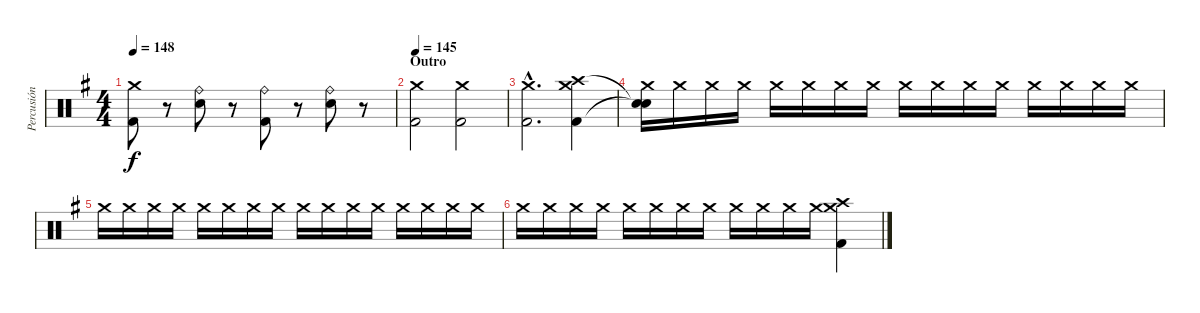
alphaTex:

\track ("Percusión" "Percusión") {instrument percussion}
\staff {score}
\articulation defaults
\ts (4 4)
\section ("" "")
\tempo 148
\clef neutral
\ks g
("Crash medium (hit)" "Kick (hit) 2").8{dy f} r.8 ("Ride (bell)" "Snare (hit) 2").8 r.8 ("Ride (bell)" "Kick (hit) 2").8 r.8 ("Ride (bell)" "Snare (hit) 2").8 r.8 |
\section ("" "Outro")
\tempo 145
("Crash medium (hit)" "Kick (hit) 2").2 ("Crash medium (hit)" "Kick (hit) 2").2 |
("Crash medium (hit)"{hac} "Kick (hit) 2"{hac}).2{d} ("Crash high (hit)" "Kick (hit) 2" "Crash medium (hit)").4 |
("Snare (hit)"{t} "Snare (hit)"{t} "Crash medium (hit)").16 "Crash medium (hit)".16 "Crash medium (hit)".16 "Crash medium (hit)".16 "Crash medium (hit)".16 "Crash medium (hit)".16 "Crash medium (hit)".16 "Crash medium (hit)".16 "Crash medium (hit)".16 "Crash medium (hit)".16 "Crash medium (hit)".16 "Crash medium (hit)".16 "Crash medium (hit)".16 "Crash medium (hit)".16 "Crash medium (hit)".16 "Crash medium (hit)".16 |
"Crash medium (hit)".16 "Crash medium (hit)".16 "Crash medium (hit)".16 "Crash medium (hit)".16 "Crash medium (hit)".16 "Crash medium (hit)".16 "Crash medium (hit)".16 "Crash medium (hit)".16 "Crash medium (hit)".16 "Crash medium (hit)".16 "Crash medium (hit)".16 "Crash medium (hit)".16 "Crash medium (hit)".16 "Crash medium (hit)".16 "Crash medium (hit)".16 "Crash medium (hit)".16 |
"Crash medium (hit)".16 "Crash medium (hit)".16 "Crash medium (hit)".16 "Crash medium (hit)".16 "Crash medium (hit)".16 "Crash medium (hit)".16 "Crash medium (hit)".16 "Crash medium (hit)".16 "Crash medium (hit)".16 "Crash medium (hit)".16 "Crash medium (hit)".16 "Crash medium (hit)".16 ("Kick (hit) 2" "Crash high (hit)" "Crash medium (hit)").4
